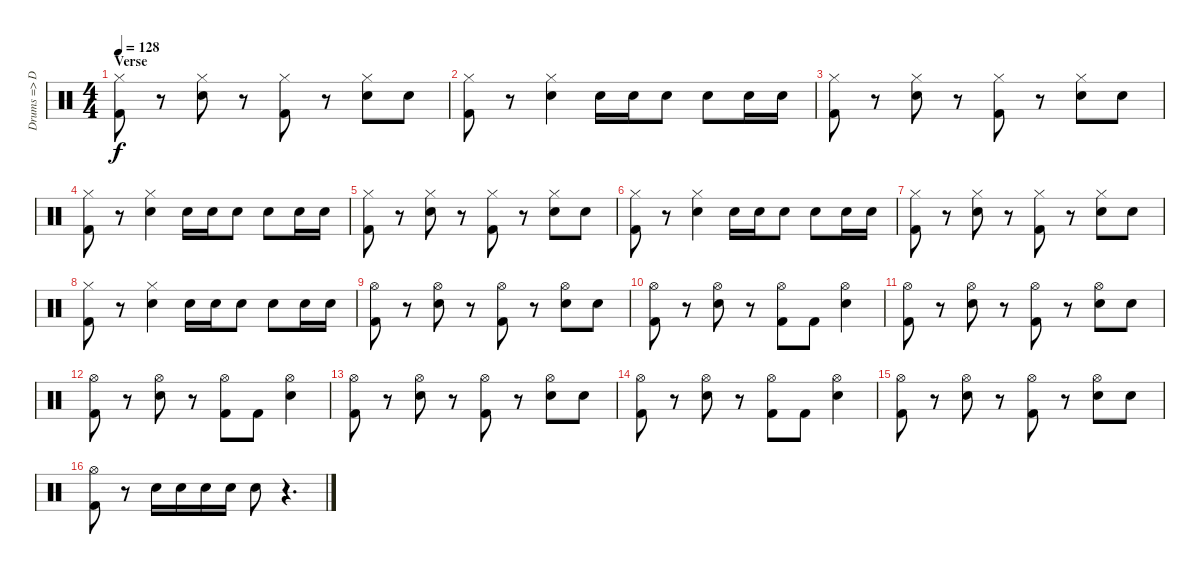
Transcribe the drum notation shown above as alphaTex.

\track ("Drums => Dave" "Drums => D") {instrument percussion}
\staff {score}
\articulation defaults
\ts (4 4)
\section ("" "Verse")
\tempo 128
\clef neutral
\ks c
("Hi-Hat (closed)" "Kick (hit) 2").8{dy f} r.8 ("Hi-Hat (closed)" "Snare (hit) 2").8 r.8 ("Hi-Hat (closed)" "Kick (hit) 2").8 r.8 ("Hi-Hat (closed)" "Snare (hit) 2").8 "Snare (hit) 2".8 |
("Hi-Hat (closed)" "Kick (hit) 2").8 r.8 ("Hi-Hat (closed)" "Snare (hit) 2").4 "Snare (hit) 2".16 "Snare (hit) 2".16 "Snare (hit) 2".8 "Snare (hit) 2".8 "Snare (hit) 2".16 "Snare (hit) 2".16 |
("Hi-Hat (closed)" "Kick (hit) 2").8 r.8 ("Hi-Hat (closed)" "Snare (hit) 2").8 r.8 ("Hi-Hat (closed)" "Kick (hit) 2").8 r.8 ("Hi-Hat (closed)" "Snare (hit) 2").8 "Snare (hit) 2".8 |
("Hi-Hat (closed)" "Kick (hit) 2").8 r.8 ("Hi-Hat (closed)" "Snare (hit) 2").4 "Snare (hit) 2".16 "Snare (hit) 2".16 "Snare (hit) 2".8 "Snare (hit) 2".8 "Snare (hit) 2".16 "Snare (hit) 2".16 |
("Hi-Hat (closed)" "Kick (hit) 2").8 r.8 ("Hi-Hat (closed)" "Snare (hit) 2").8 r.8 ("Hi-Hat (closed)" "Kick (hit) 2").8 r.8 ("Hi-Hat (closed)" "Snare (hit) 2").8 "Snare (hit) 2".8 |
("Hi-Hat (closed)" "Kick (hit) 2").8 r.8 ("Hi-Hat (closed)" "Snare (hit) 2").4 "Snare (hit) 2".16 "Snare (hit) 2".16 "Snare (hit) 2".8 "Snare (hit) 2".8 "Snare (hit) 2".16 "Snare (hit) 2".16 |
("Hi-Hat (closed)" "Kick (hit) 2").8 r.8 ("Hi-Hat (closed)" "Snare (hit) 2").8 r.8 ("Hi-Hat (closed)" "Kick (hit) 2").8 r.8 ("Hi-Hat (closed)" "Snare (hit) 2").8 "Snare (hit) 2".8 |
("Hi-Hat (closed)" "Kick (hit) 2").8 r.8 ("Hi-Hat (closed)" "Snare (hit) 2").4 "Snare (hit) 2".16 "Snare (hit) 2".16 "Snare (hit) 2".8 "Snare (hit) 2".8 "Snare (hit) 2".16 "Snare (hit) 2".16 |
("Hi-Hat (open)" "Kick (hit) 2").8 r.8 ("Hi-Hat (open)" "Snare (hit) 2").8 r.8 ("Hi-Hat (open)" "Kick (hit) 2").8 r.8 ("Hi-Hat (open)" "Snare (hit) 2").8 "Snare (hit) 2".8 |
("Hi-Hat (open)" "Kick (hit) 2").8 r.8 ("Hi-Hat (open)" "Snare (hit) 2").8 r.8 ("Hi-Hat (open)" "Kick (hit) 2").8 "Kick (hit) 2".8 ("Hi-Hat (open)" "Snare (hit) 2").4 |
("Hi-Hat (open)" "Kick (hit) 2").8 r.8 ("Hi-Hat (open)" "Snare (hit) 2").8 r.8 ("Hi-Hat (open)" "Kick (hit) 2").8 r.8 ("Hi-Hat (open)" "Snare (hit) 2").8 "Snare (hit) 2".8 |
("Hi-Hat (open)" "Kick (hit) 2").8 r.8 ("Hi-Hat (open)" "Snare (hit) 2").8 r.8 ("Hi-Hat (open)" "Kick (hit) 2").8 "Kick (hit) 2".8 ("Hi-Hat (open)" "Snare (hit) 2").4 |
("Hi-Hat (open)" "Kick (hit) 2").8 r.8 ("Hi-Hat (open)" "Snare (hit) 2").8 r.8 ("Hi-Hat (open)" "Kick (hit) 2").8 r.8 ("Hi-Hat (open)" "Snare (hit) 2").8 "Snare (hit) 2".8 |
("Hi-Hat (open)" "Kick (hit) 2").8 r.8 ("Hi-Hat (open)" "Snare (hit) 2").8 r.8 ("Hi-Hat (open)" "Kick (hit) 2").8 "Kick (hit) 2".8 ("Hi-Hat (open)" "Snare (hit) 2").4 |
("Hi-Hat (open)" "Kick (hit) 2").8 r.8 ("Hi-Hat (open)" "Snare (hit) 2").8 r.8 ("Hi-Hat (open)" "Kick (hit) 2").8 r.8 ("Hi-Hat (open)" "Snare (hit) 2").8 "Snare (hit) 2".8 |
("Hi-Hat (open)" "Kick (hit) 2").8 r.8 "Snare (hit) 2".16 "Snare (hit) 2".16 "Snare (hit) 2".16 "Snare (hit) 2".16 "Snare (hit) 2".8 r.4{d}
